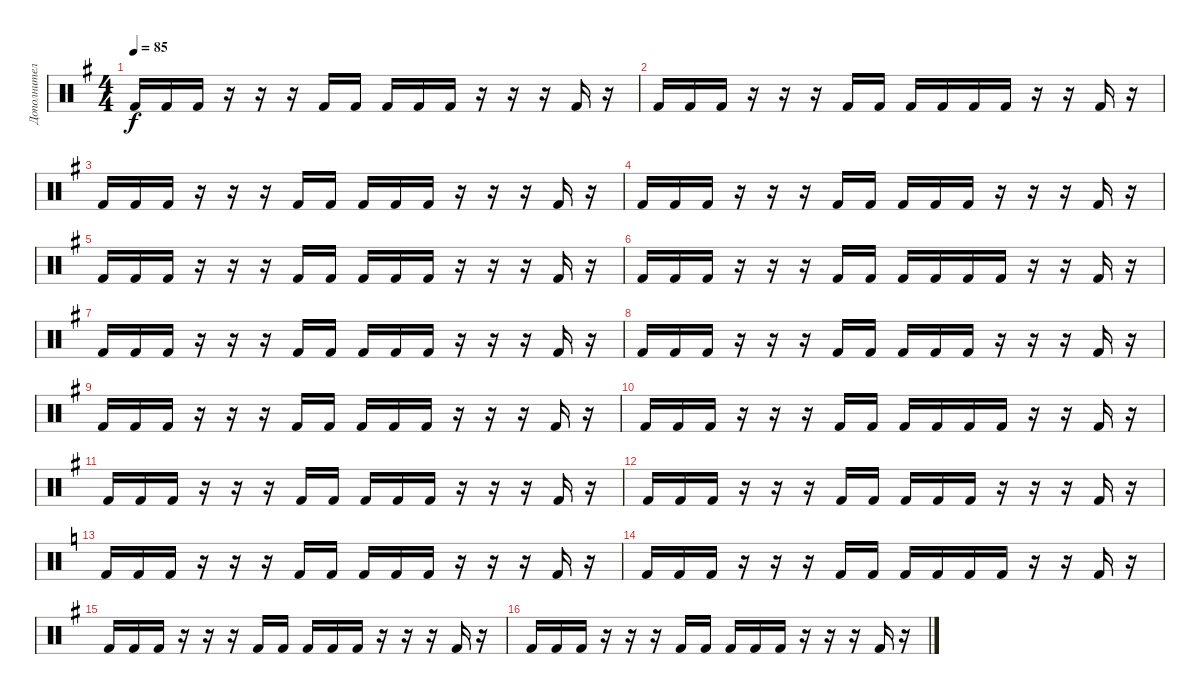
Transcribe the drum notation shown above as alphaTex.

\track ("Дополнительно" "Дополнител") {instrument percussion}
\staff {score}
\articulation defaults
\ts (4 4)
\tempo 85
\clef neutral
\ks eminor "Kick (hit) 2".16{dy f} "Kick (hit) 2".16 "Kick (hit) 2".16
r.16 r.16 r.16 "Kick (hit) 2".16 "Kick (hit) 2".16 "Kick (hit) 2".16 "Kick (hit) 2".16 "Kick (hit) 2".16 r.16 r.16 r.16 "Kick (hit) 2".16 r.16 |
"Kick (hit) 2".16 "Kick (hit) 2".16 "Kick (hit) 2".16 r.16 r.16 r.16 "Kick (hit) 2".16 "Kick (hit) 2".16 "Kick (hit) 2".16 "Kick (hit) 2".16 "Kick (hit) 2".16 "Kick (hit) 2".16 r.16 r.16 "Kick (hit) 2".16 r.16 |
"Kick (hit) 2".16 "Kick (hit) 2".16 "Kick (hit) 2".16 r.16 r.16 r.16 "Kick (hit) 2".16 "Kick (hit) 2".16 "Kick (hit) 2".16 "Kick (hit) 2".16 "Kick (hit) 2".16 r.16 r.16 r.16 "Kick (hit) 2".16 r.16 |
"Kick (hit) 2".16 "Kick (hit) 2".16 "Kick (hit) 2".16 r.16 r.16 r.16 "Kick (hit) 2".16 "Kick (hit) 2".16 "Kick (hit) 2".16 "Kick (hit) 2".16 "Kick (hit) 2".16 r.16 r.16 r.16 "Kick (hit) 2".16 r.16 |
"Kick (hit) 2".16 "Kick (hit) 2".16 "Kick (hit) 2".16 r.16 r.16 r.16 "Kick (hit) 2".16 "Kick (hit) 2".16 "Kick (hit) 2".16 "Kick (hit) 2".16 "Kick (hit) 2".16 r.16 r.16 r.16 "Kick (hit) 2".16 r.16 |
"Kick (hit) 2".16 "Kick (hit) 2".16 "Kick (hit) 2".16 r.16 r.16 r.16 "Kick (hit) 2".16 "Kick (hit) 2".16 "Kick (hit) 2".16 "Kick (hit) 2".16 "Kick (hit) 2".16 "Kick (hit) 2".16 r.16 r.16 "Kick (hit) 2".16 r.16 |
"Kick (hit) 2".16 "Kick (hit) 2".16 "Kick (hit) 2".16 r.16 r.16 r.16 "Kick (hit) 2".16 "Kick (hit) 2".16 "Kick (hit) 2".16 "Kick (hit) 2".16 "Kick (hit) 2".16 r.16 r.16 r.16 "Kick (hit) 2".16 r.16 |
"Kick (hit) 2".16 "Kick (hit) 2".16 "Kick (hit) 2".16 r.16 r.16 r.16 "Kick (hit) 2".16 "Kick (hit) 2".16 "Kick (hit) 2".16 "Kick (hit) 2".16 "Kick (hit) 2".16 r.16 r.16 r.16 "Kick (hit) 2".16 r.16 |
"Kick (hit) 2".16 "Kick (hit) 2".16 "Kick (hit) 2".16 r.16 r.16 r.16 "Kick (hit) 2".16 "Kick (hit) 2".16 "Kick (hit) 2".16 "Kick (hit) 2".16 "Kick (hit) 2".16 r.16 r.16 r.16 "Kick (hit) 2".16 r.16 |
"Kick (hit) 2".16 "Kick (hit) 2".16 "Kick (hit) 2".16 r.16 r.16 r.16 "Kick (hit) 2".16 "Kick (hit) 2".16 "Kick (hit) 2".16 "Kick (hit) 2".16 "Kick (hit) 2".16 "Kick (hit) 2".16 r.16 r.16 "Kick (hit) 2".16 r.16 |
"Kick (hit) 2".16 "Kick (hit) 2".16 "Kick (hit) 2".16 r.16 r.16 r.16 "Kick (hit) 2".16 "Kick (hit) 2".16 "Kick (hit) 2".16 "Kick (hit) 2".16 "Kick (hit) 2".16 r.16 r.16 r.16 "Kick (hit) 2".16 r.16 |
"Kick (hit) 2".16 "Kick (hit) 2".16 "Kick (hit) 2".16 r.16 r.16 r.16 "Kick (hit) 2".16 "Kick (hit) 2".16 "Kick (hit) 2".16 "Kick (hit) 2".16 "Kick (hit) 2".16 r.16 r.16 r.16 "Kick (hit) 2".16 r.16 |
\ks c "Kick (hit) 2".16 "Kick (hit) 2".16 "Kick (hit) 2".16
r.16 r.16 r.16 "Kick (hit) 2".16 "Kick (hit) 2".16 "Kick (hit) 2".16 "Kick (hit) 2".16 "Kick (hit) 2".16 r.16 r.16 r.16 "Kick (hit) 2".16 r.16 |
"Kick (hit) 2".16 "Kick (hit) 2".16 "Kick (hit) 2".16 r.16 r.16 r.16 "Kick (hit) 2".16 "Kick (hit) 2".16 "Kick (hit) 2".16 "Kick (hit) 2".16 "Kick (hit) 2".16 "Kick (hit) 2".16 r.16 r.16 "Kick (hit) 2".16 r.16 |
\ks eminor "Kick (hit) 2".16 "Kick (hit) 2".16 "Kick (hit) 2".16
r.16 r.16 r.16 "Kick (hit) 2".16 "Kick (hit) 2".16 "Kick (hit) 2".16 "Kick (hit) 2".16 "Kick (hit) 2".16 r.16 r.16 r.16 "Kick (hit) 2".16 r.16 |
"Kick (hit) 2".16 "Kick (hit) 2".16 "Kick (hit) 2".16 r.16 r.16 r.16 "Kick (hit) 2".16 "Kick (hit) 2".16 "Kick (hit) 2".16 "Kick (hit) 2".16 "Kick (hit) 2".16 r.16 r.16 r.16 "Kick (hit) 2".16 r.16
